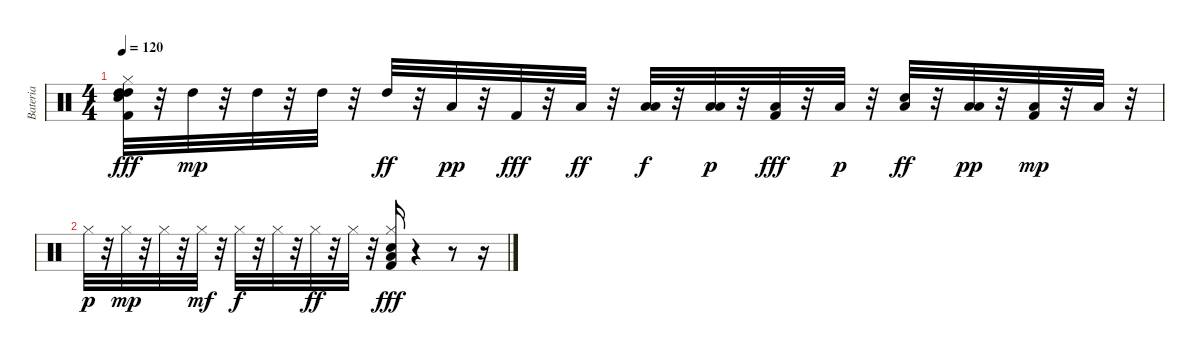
\track ("Bateria" "Bateria") {instrument percussion}
\staff {score}
\articulation defaults
\ts (4 4)
\tempo 120
\clef neutral
\ks c
("High Tom (hit)" "High Tom (hit)" "Kick (hit) 2" "Hi-Hat (closed)" "Snare (hit) 2").32{dy fff} r.32 "High Tom (hit)".32{dy mp} r.32 "High Tom (hit)".32 r.32 "High Tom (hit)".32 r.32 "High Tom (hit)".32{dy ff} r.32 "Low Tom (hit)".32{dy pp} r.32 "Kick (hit) 2".32{dy fff} r.32 "Low Tom (hit)".32{dy ff} r.32 ("Low Tom (hit)" "Low Tom (hit)").32{dy f} r.32 ("Low Tom (hit)" "Low Tom (hit)").32{dy p} r.32 ("Low Floor Tom (hit)" "Kick (hit) 2").32{dy fff} r.32 "Low Floor Tom (hit)".32{dy p} r.32 ("Low Floor Tom (hit)" "Snare (hit) 2").32{dy ff} r.32 ("Low Floor Tom (hit)" "Low Floor Tom (hit)").32{dy pp} r.32 ("Kick (hit) 2" "Low Floor Tom (hit)").32{dy mp} r.32 "Low Floor Tom (hit)".32 r.32 |
"Hi-Hat (closed)".32{dy p} r.32 "Hi-Hat (closed)".32{dy mp} r.32 "Hi-Hat (closed)".32 r.32 "Hi-Hat (closed)".32{dy mf} r.32 "Hi-Hat (closed)".32{dy f} r.32 "Hi-Hat (closed)".32 r.32 "Hi-Hat (closed)".32{dy ff} r.32 "Hi-Hat (closed)".32 r.32 ("Kick (hit) 2" "Snare (hit) 2" "Low Floor Tom (hit)" "Hi-Hat (closed)").16{dy fff} r.4 r.8 r.16
